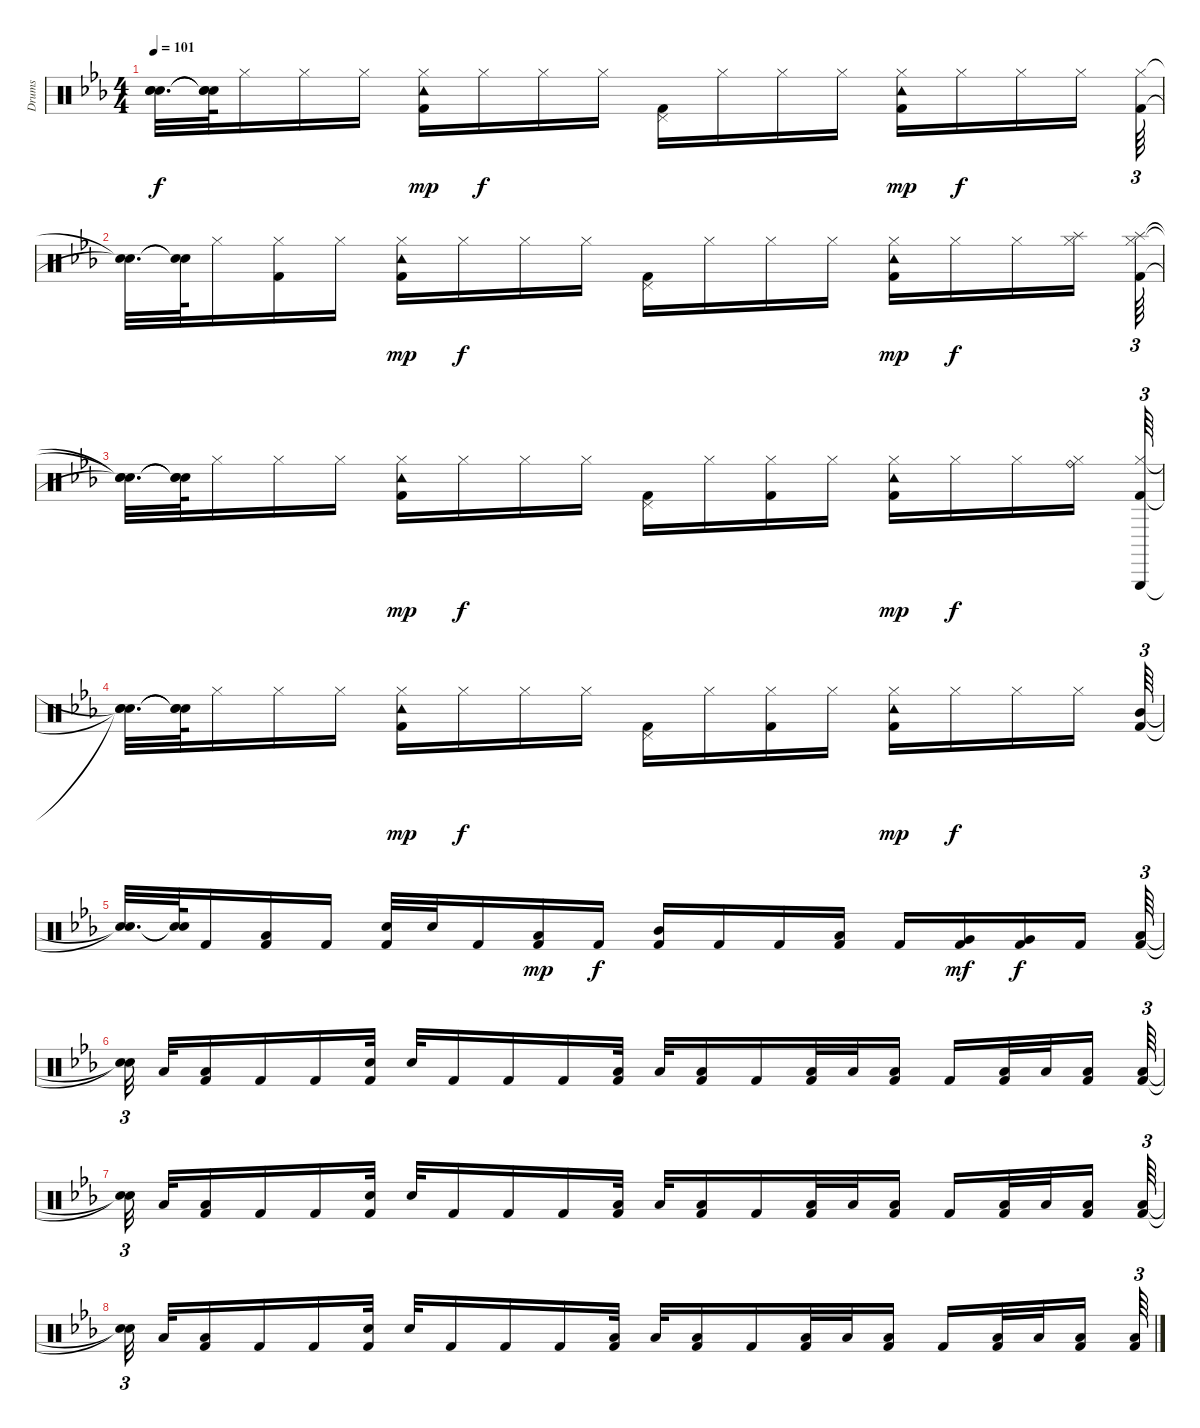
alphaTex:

\track ("Drums" "Drums") {instrument percussion}
\staff {score}
\articulation defaults
\ts (4 4)
\tempo 101
\clef neutral
\ks cminor
("Snare (hit)"{t} "Snare (hit)"{t} "Snare (hit)"{t}).32{d dy f} ("Snare (hit)"{t} "Snare (hit)"{t} "Snare (hit)"{t}).64 "Hi-Hat (closed)".16 "Hi-Hat (closed)".16 "Hi-Hat (closed)".16 ("Hi-Hat (closed)" "Kick (hit) 2" "Tambourine (hit)").16{dy mp} "Hi-Hat (closed)".16{dy f} "Hi-Hat (closed)".16 "Hi-Hat (closed)".16 ("Kick (hit) 2" "Pedal Hi-Hat (hit)").16 "Hi-Hat (closed)".16 "Hi-Hat (closed)".16 "Hi-Hat (closed)".16 ("Hi-Hat (closed)" "Kick (hit) 2" "Tambourine (hit)").16{dy mp} "Hi-Hat (closed)".16{dy f} "Hi-Hat (closed)".16 "Hi-Hat (closed)".16 ("Hi-Hat (closed)" "Kick (hit) 2").64{tu (3 2)} |
("Snare (hit)"{t} "Snare (hit)"{t}).32{d} ("Snare (hit)"{t} "Snare (hit)"{t}).64 "Hi-Hat (closed)".16 ("Hi-Hat (closed)" "Kick (hit) 2").16 "Hi-Hat (closed)".16 ("Hi-Hat (closed)" "Kick (hit) 2" "Tambourine (hit)").16{dy mp} "Hi-Hat (closed)".16{dy f} "Hi-Hat (closed)".16 "Hi-Hat (closed)".16 ("Kick (hit) 2" "Pedal Hi-Hat (hit)").16 "Hi-Hat (closed)".16 "Hi-Hat (closed)".16 "Hi-Hat (closed)".16 ("Hi-Hat (closed)" "Kick (hit) 2" "Tambourine (hit)").16{dy mp} "Hi-Hat (closed)".16{dy f} "Hi-Hat (closed)".16 ("Hi-Hat (closed)" "Splash (hit)").16 ("Hi-Hat (closed)" "Kick (hit) 2" "Splash (hit)").64{tu (3 2)} |
("Snare (hit)"{t} "Snare (hit)"{t} "Snare (hit)"{t}).32{d} ("Snare (hit)"{t} "Snare (hit)"{t} "Snare (hit)"{t}).64 "Hi-Hat (closed)".16 "Hi-Hat (closed)".16 "Hi-Hat (closed)".16 ("Hi-Hat (closed)" "Kick (hit) 2" "Tambourine (hit)").16{dy mp} "Hi-Hat (closed)".16{dy f} "Hi-Hat (closed)".16 "Hi-Hat (closed)".16 ("Kick (hit) 2" "Pedal Hi-Hat (hit)").16 "Hi-Hat (closed)".16 ("Hi-Hat (closed)" "Kick (hit) 2").16 "Hi-Hat (closed)".16 ("Hi-Hat (closed)" "Kick (hit) 2" "Tambourine (hit)").16{dy mp} "Hi-Hat (closed)".16{dy f} "Hi-Hat (closed)".16 ("Hi-Hat (closed)" "Ride (bell)").16 ("Triangle (hit)" "Kick (hit) 2" "Hi-Hat (closed)").64{tu (3 2)} |
("Snare (hit)"{t} "Snare (hit)"{t} "Snare (hit)"{t}).32{d} ("Snare (hit)"{t} "Snare (hit)"{t} "Snare (hit)"{t}).64 "Hi-Hat (closed)".16 "Hi-Hat (closed)".16 "Hi-Hat (closed)".16 ("Hi-Hat (closed)" "Kick (hit) 2" "Tambourine (hit)").16{dy mp} "Hi-Hat (closed)".16{dy f} "Hi-Hat (closed)".16 "Hi-Hat (closed)".16 ("Kick (hit) 2" "Pedal Hi-Hat (hit)").16 "Hi-Hat (closed)".16 ("Hi-Hat (closed)" "Kick (hit) 2").16 "Hi-Hat (closed)".16 ("Hi-Hat (closed)" "Kick (hit) 2" "Tambourine (hit)").16{dy mp} "Hi-Hat (closed)".16{dy f} "Hi-Hat (closed)".16 "Hi-Hat (closed)".16 ("Kick (hit) 2" "Mid Tom (hit)").64{tu (3 2)} |
("Snare (hit)"{t} "Snare (hit)"{t}).32{d} ("Snare (hit)"{t} "Snare (hit)"{t}).64 "Kick (hit) 2".16 ("Kick (hit) 2" "Low Tom (hit)").16 "Kick (hit) 2".16 ("Kick (hit) 2" "Electric Snare (hit)").32 "Electric Snare (hit)".32 "Kick (hit) 2".16 ("Kick (hit) 2" "Low Tom (hit)").16{dy mp} "Kick (hit) 2".16{dy f} ("Kick (hit) 2" "Mid Tom (hit)").16 "Kick (hit) 2".16 "Kick (hit) 2".16 ("Kick (hit) 2" "Low Tom (hit)").16 "Kick (hit) 2".16 ("Kick (hit) 2" "Very Low Tom (hit)").16{dy mf} ("Kick (hit) 2" "Very Low Tom (hit)").16{dy f} "Kick (hit) 2".16 ("Kick (hit) 2" "Low Tom (hit)").64{tu (3 2)} |
("Snare (hit)"{t} "Snare (hit)"{t}).32{tu (3 2) beam splitsecondary} "Low Tom (hit)".32 ("Kick (hit) 2" "Low Tom (hit)").16 "Kick (hit) 2".16 "Kick (hit) 2".16 ("Kick (hit) 2" "Electric Snare (hit)").32 "Electric Snare (hit)".32 "Kick (hit) 2".16 "Kick (hit) 2".16 "Kick (hit) 2".16 ("Kick (hit) 2" "Low Tom (hit)").32 "Low Tom (hit)".32 ("Kick (hit) 2" "Low Tom (hit)").16 "Kick (hit) 2".16 ("Kick (hit) 2" "Low Tom (hit)").32 "Low Tom (hit)".32 ("Kick (hit) 2" "Low Tom (hit)").16 "Kick (hit) 2".16 ("Kick (hit) 2" "Low Tom (hit)").32 "Low Tom (hit)".32 ("Kick (hit) 2" "Low Tom (hit)").16{beam splitsecondary} ("Kick (hit) 2" "Low Tom (hit)").64{tu (3 2)} |
("Snare (hit)"{t} "Snare (hit)"{t}).32{tu (3 2) beam splitsecondary} "Low Tom (hit)".32 ("Kick (hit) 2" "Low Tom (hit)").16 "Kick (hit) 2".16 "Kick (hit) 2".16 ("Kick (hit) 2" "Electric Snare (hit)").32 "Electric Snare (hit)".32 "Kick (hit) 2".16 "Kick (hit) 2".16 "Kick (hit) 2".16 ("Kick (hit) 2" "Low Tom (hit)").32 "Low Tom (hit)".32 ("Kick (hit) 2" "Low Tom (hit)").16 "Kick (hit) 2".16 ("Kick (hit) 2" "Low Tom (hit)").32 "Low Tom (hit)".32 ("Kick (hit) 2" "Low Tom (hit)").16 "Kick (hit) 2".16 ("Kick (hit) 2" "Low Tom (hit)").32 "Low Tom (hit)".32 ("Kick (hit) 2" "Low Tom (hit)").16{beam splitsecondary} ("Kick (hit) 2" "Low Tom (hit)").64{tu (3 2)} |
("Snare (hit)"{t} "Snare (hit)"{t}).32{tu (3 2) beam splitsecondary} "Low Tom (hit)".32 ("Kick (hit) 2" "Low Tom (hit)").16 "Kick (hit) 2".16 "Kick (hit) 2".16 ("Kick (hit) 2" "Electric Snare (hit)").32 "Electric Snare (hit)".32 "Kick (hit) 2".16 "Kick (hit) 2".16 "Kick (hit) 2".16 ("Kick (hit) 2" "Low Tom (hit)").32 "Low Tom (hit)".32 ("Kick (hit) 2" "Low Tom (hit)").16 "Kick (hit) 2".16 ("Kick (hit) 2" "Low Tom (hit)").32 "Low Tom (hit)".32 ("Kick (hit) 2" "Low Tom (hit)").16 "Kick (hit) 2".16 ("Kick (hit) 2" "Low Tom (hit)").32 "Low Tom (hit)".32 ("Kick (hit) 2" "Low Tom (hit)").16{beam splitsecondary} ("Low Tom (hit)" "Kick (hit) 2").64{tu (3 2)}
